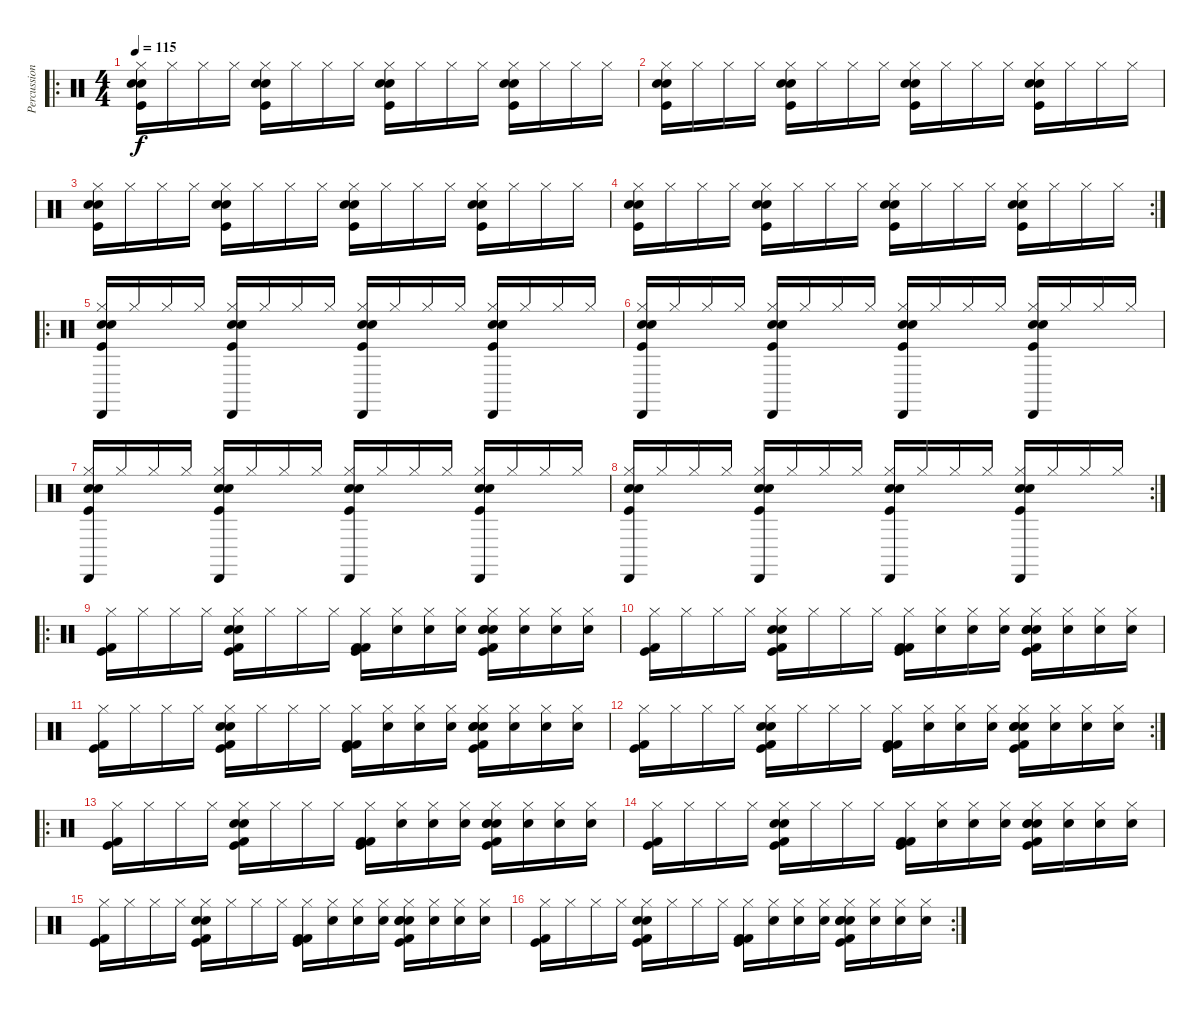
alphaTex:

\track ("Percussion" "Percussion") {instrument percussion}
\staff {score}
\articulation defaults
\ro
\ts (4 4)
\tempo 115
\clef neutral
\ks c
("Hi-Hat (closed)" "Hand Clap (hit)" "Hand Clap (hit)" "Kick (hit)").16{dy f} "Hi-Hat (closed)".16 "Hi-Hat (closed)".16 "Hi-Hat (closed)".16 ("Hi-Hat (closed)" "Hand Clap (hit)" "Hand Clap (hit)" "Kick (hit)").16 "Hi-Hat (closed)".16 "Hi-Hat (closed)".16 "Hi-Hat (closed)".16 ("Hi-Hat (closed)" "Hand Clap (hit)" "Hand Clap (hit)" "Kick (hit)").16 "Hi-Hat (closed)".16 "Hi-Hat (closed)".16 "Hi-Hat (closed)".16 ("Hi-Hat (closed)" "Hand Clap (hit)" "Hand Clap (hit)" "Kick (hit)").16 "Hi-Hat (closed)".16 "Hi-Hat (closed)".16 "Hi-Hat (closed)".16 |
("Hi-Hat (closed)" "Hand Clap (hit)" "Hand Clap (hit)" "Kick (hit)").16 "Hi-Hat (closed)".16 "Hi-Hat (closed)".16 "Hi-Hat (closed)".16 ("Hi-Hat (closed)" "Hand Clap (hit)" "Hand Clap (hit)" "Kick (hit)").16 "Hi-Hat (closed)".16 "Hi-Hat (closed)".16 "Hi-Hat (closed)".16 ("Hi-Hat (closed)" "Hand Clap (hit)" "Hand Clap (hit)" "Kick (hit)").16 "Hi-Hat (closed)".16 "Hi-Hat (closed)".16 "Hi-Hat (closed)".16 ("Hi-Hat (closed)" "Hand Clap (hit)" "Hand Clap (hit)" "Kick (hit)").16 "Hi-Hat (closed)".16 "Hi-Hat (closed)".16 "Hi-Hat (closed)".16 |
("Hi-Hat (closed)" "Hand Clap (hit)" "Hand Clap (hit)" "Kick (hit)").16 "Hi-Hat (closed)".16 "Hi-Hat (closed)".16 "Hi-Hat (closed)".16 ("Hi-Hat (closed)" "Hand Clap (hit)" "Hand Clap (hit)" "Kick (hit)").16 "Hi-Hat (closed)".16 "Hi-Hat (closed)".16 "Hi-Hat (closed)".16 ("Hi-Hat (closed)" "Hand Clap (hit)" "Hand Clap (hit)" "Kick (hit)").16 "Hi-Hat (closed)".16 "Hi-Hat (closed)".16 "Hi-Hat (closed)".16 ("Hi-Hat (closed)" "Hand Clap (hit)" "Hand Clap (hit)" "Kick (hit)").16 "Hi-Hat (closed)".16 "Hi-Hat (closed)".16 "Hi-Hat (closed)".16 |
\rc 2
("Hi-Hat (closed)" "Hand Clap (hit)" "Hand Clap (hit)" "Kick (hit)").16 "Hi-Hat (closed)".16 "Hi-Hat (closed)".16 "Hi-Hat (closed)".16 ("Hi-Hat (closed)" "Hand Clap (hit)" "Hand Clap (hit)" "Kick (hit)").16 "Hi-Hat (closed)".16 "Hi-Hat (closed)".16 "Hi-Hat (closed)".16 ("Hi-Hat (closed)" "Hand Clap (hit)" "Hand Clap (hit)" "Kick (hit)").16 "Hi-Hat (closed)".16 "Hi-Hat (closed)".16 "Hi-Hat (closed)".16 ("Hi-Hat (closed)" "Hand Clap (hit)" "Hand Clap (hit)" "Kick (hit)").16 "Hi-Hat (closed)".16 "Hi-Hat (closed)".16 "Hi-Hat (closed)".16 |
\ro
("Hi-Hat (closed)" "Cabasa (hit)" "Hand Clap (hit)" "Hand Clap (hit)" "Kick (hit)").16 "Hi-Hat (closed)".16 "Hi-Hat (closed)".16 "Hi-Hat (closed)".16 ("Hi-Hat (closed)" "Cabasa (hit)" "Hand Clap (hit)" "Hand Clap (hit)" "Kick (hit)").16 "Hi-Hat (closed)".16 "Hi-Hat (closed)".16 "Hi-Hat (closed)".16 ("Hi-Hat (closed)" "Cabasa (hit)" "Hand Clap (hit)" "Hand Clap (hit)" "Kick (hit)").16 "Hi-Hat (closed)".16 "Hi-Hat (closed)".16 "Hi-Hat (closed)".16 ("Hi-Hat (closed)" "Cabasa (hit)" "Hand Clap (hit)" "Hand Clap (hit)" "Kick (hit)").16 "Hi-Hat (closed)".16 "Hi-Hat (closed)".16 "Hi-Hat (closed)".16 |
("Hi-Hat (closed)" "Cabasa (hit)" "Hand Clap (hit)" "Hand Clap (hit)" "Kick (hit)").16 "Hi-Hat (closed)".16 "Hi-Hat (closed)".16 "Hi-Hat (closed)".16 ("Hi-Hat (closed)" "Cabasa (hit)" "Hand Clap (hit)" "Hand Clap (hit)" "Kick (hit)").16 "Hi-Hat (closed)".16 "Hi-Hat (closed)".16 "Hi-Hat (closed)".16 ("Hi-Hat (closed)" "Cabasa (hit)" "Hand Clap (hit)" "Hand Clap (hit)" "Kick (hit)").16 "Hi-Hat (closed)".16 "Hi-Hat (closed)".16 "Hi-Hat (closed)".16 ("Hi-Hat (closed)" "Cabasa (hit)" "Hand Clap (hit)" "Hand Clap (hit)" "Kick (hit)").16 "Hi-Hat (closed)".16 "Hi-Hat (closed)".16 "Hi-Hat (closed)".16 |
("Hi-Hat (closed)" "Cabasa (hit)" "Hand Clap (hit)" "Hand Clap (hit)" "Kick (hit)").16 "Hi-Hat (closed)".16 "Hi-Hat (closed)".16 "Hi-Hat (closed)".16 ("Hi-Hat (closed)" "Cabasa (hit)" "Hand Clap (hit)" "Hand Clap (hit)" "Kick (hit)").16 "Hi-Hat (closed)".16 "Hi-Hat (closed)".16 "Hi-Hat (closed)".16 ("Hi-Hat (closed)" "Cabasa (hit)" "Hand Clap (hit)" "Hand Clap (hit)" "Kick (hit)").16 "Hi-Hat (closed)".16 "Hi-Hat (closed)".16 "Hi-Hat (closed)".16 ("Hi-Hat (closed)" "Cabasa (hit)" "Hand Clap (hit)" "Hand Clap (hit)" "Kick (hit)").16 "Hi-Hat (closed)".16 "Hi-Hat (closed)".16 "Hi-Hat (closed)".16 |
\rc 2
("Hi-Hat (closed)" "Cabasa (hit)" "Hand Clap (hit)" "Hand Clap (hit)" "Kick (hit)").16 "Hi-Hat (closed)".16 "Hi-Hat (closed)".16 "Hi-Hat (closed)".16 ("Hi-Hat (closed)" "Cabasa (hit)" "Hand Clap (hit)" "Hand Clap (hit)" "Kick (hit)").16 "Hi-Hat (closed)".16 "Hi-Hat (closed)".16 "Hi-Hat (closed)".16 ("Hi-Hat (closed)" "Cabasa (hit)" "Hand Clap (hit)" "Hand Clap (hit)" "Kick (hit)").16 "Hi-Hat (closed)".16 "Hi-Hat (closed)".16 "Hi-Hat (closed)".16 ("Hi-Hat (closed)" "Cabasa (hit)" "Hand Clap (hit)" "Hand Clap (hit)" "Kick (hit)").16 "Hi-Hat (closed)".16 "Hi-Hat (closed)".16 "Hi-Hat (closed)".16 |
\ro
("Hi-Hat (closed)" "Kick (hit) 2" "Kick (hit)").16 "Hi-Hat (closed)".16 "Hi-Hat (closed)".16 "Hi-Hat (closed)".16 ("Hi-Hat (closed)" "Snare (hit) 2" "Electric Snare (hit)" "Kick (hit) 2" "Kick (hit)").16 "Hi-Hat (closed)".16 "Hi-Hat (closed)".16 "Hi-Hat (closed)".16 ("Hi-Hat (closed)" "Kick (hit) 2" "Kick (hit) 2" "Kick (hit)").16 ("Hi-Hat (closed)" "Hand Clap (hit)").16 ("Hi-Hat (closed)" "Hand Clap (hit)").16 ("Hi-Hat (closed)" "Hand Clap (hit)").16 ("Hi-Hat (closed)" "Snare (hit) 2" "Electric Snare (hit)" "Kick (hit) 2" "Hand Clap (hit)" "Kick (hit)").16 ("Hi-Hat (closed)" "Hand Clap (hit)").16 ("Hi-Hat (closed)" "Hand Clap (hit)").16 ("Hi-Hat (closed)" "Hand Clap (hit)").16 |
("Hi-Hat (closed)" "Kick (hit) 2" "Kick (hit)").16 "Hi-Hat (closed)".16 "Hi-Hat (closed)".16 "Hi-Hat (closed)".16 ("Hi-Hat (closed)" "Snare (hit) 2" "Electric Snare (hit)" "Kick (hit) 2" "Kick (hit)").16 "Hi-Hat (closed)".16 "Hi-Hat (closed)".16 "Hi-Hat (closed)".16 ("Hi-Hat (closed)" "Kick (hit) 2" "Kick (hit) 2" "Kick (hit)").16 ("Hi-Hat (closed)" "Hand Clap (hit)").16 ("Hi-Hat (closed)" "Hand Clap (hit)").16 ("Hi-Hat (closed)" "Hand Clap (hit)").16 ("Hi-Hat (closed)" "Snare (hit) 2" "Electric Snare (hit)" "Kick (hit) 2" "Hand Clap (hit)" "Kick (hit)").16 ("Hi-Hat (closed)" "Hand Clap (hit)").16 ("Hi-Hat (closed)" "Hand Clap (hit)").16 ("Hi-Hat (closed)" "Hand Clap (hit)").16 |
("Hi-Hat (closed)" "Kick (hit) 2" "Kick (hit)").16 "Hi-Hat (closed)".16 "Hi-Hat (closed)".16 "Hi-Hat (closed)".16 ("Hi-Hat (closed)" "Snare (hit) 2" "Electric Snare (hit)" "Kick (hit) 2" "Kick (hit)").16 "Hi-Hat (closed)".16 "Hi-Hat (closed)".16 "Hi-Hat (closed)".16 ("Hi-Hat (closed)" "Kick (hit) 2" "Kick (hit) 2" "Kick (hit)").16 ("Hi-Hat (closed)" "Hand Clap (hit)").16 ("Hi-Hat (closed)" "Hand Clap (hit)").16 ("Hi-Hat (closed)" "Hand Clap (hit)").16 ("Hi-Hat (closed)" "Snare (hit) 2" "Electric Snare (hit)" "Kick (hit) 2" "Hand Clap (hit)" "Kick (hit)").16 ("Hi-Hat (closed)" "Hand Clap (hit)").16 ("Hi-Hat (closed)" "Hand Clap (hit)").16 ("Hi-Hat (closed)" "Hand Clap (hit)").16 |
\rc 2
("Hi-Hat (closed)" "Kick (hit) 2" "Kick (hit)").16 "Hi-Hat (closed)".16 "Hi-Hat (closed)".16 "Hi-Hat (closed)".16 ("Hi-Hat (closed)" "Snare (hit) 2" "Electric Snare (hit)" "Kick (hit) 2" "Kick (hit)").16 "Hi-Hat (closed)".16 "Hi-Hat (closed)".16 "Hi-Hat (closed)".16 ("Hi-Hat (closed)" "Kick (hit) 2" "Kick (hit) 2" "Kick (hit)").16 ("Hi-Hat (closed)" "Hand Clap (hit)").16 ("Hi-Hat (closed)" "Hand Clap (hit)").16 ("Hi-Hat (closed)" "Hand Clap (hit)").16 ("Hi-Hat (closed)" "Snare (hit) 2" "Electric Snare (hit)" "Kick (hit) 2" "Hand Clap (hit)" "Kick (hit)").16 ("Hi-Hat (closed)" "Hand Clap (hit)").16 ("Hi-Hat (closed)" "Hand Clap (hit)").16 ("Hi-Hat (closed)" "Hand Clap (hit)").16 |
\ro
("Hi-Hat (closed)" "Kick (hit) 2" "Kick (hit)").16 "Hi-Hat (closed)".16 "Hi-Hat (closed)".16 "Hi-Hat (closed)".16 ("Hi-Hat (closed)" "Snare (hit) 2" "Electric Snare (hit)" "Kick (hit) 2" "Kick (hit)").16 "Hi-Hat (closed)".16 "Hi-Hat (closed)".16 "Hi-Hat (closed)".16 ("Hi-Hat (closed)" "Kick (hit) 2" "Kick (hit) 2" "Kick (hit)").16 ("Hi-Hat (closed)" "Hand Clap (hit)").16 ("Hi-Hat (closed)" "Hand Clap (hit)").16 ("Hi-Hat (closed)" "Hand Clap (hit)").16 ("Hi-Hat (closed)" "Snare (hit) 2" "Electric Snare (hit)" "Kick (hit) 2" "Hand Clap (hit)" "Kick (hit)").16 ("Hi-Hat (closed)" "Hand Clap (hit)").16 ("Hi-Hat (closed)" "Hand Clap (hit)").16 ("Hi-Hat (closed)" "Hand Clap (hit)").16 |
("Hi-Hat (closed)" "Kick (hit) 2" "Kick (hit)").16 "Hi-Hat (closed)".16 "Hi-Hat (closed)".16 "Hi-Hat (closed)".16 ("Hi-Hat (closed)" "Snare (hit) 2" "Electric Snare (hit)" "Kick (hit) 2" "Kick (hit)").16 "Hi-Hat (closed)".16 "Hi-Hat (closed)".16 "Hi-Hat (closed)".16 ("Hi-Hat (closed)" "Kick (hit) 2" "Kick (hit) 2" "Kick (hit)").16 ("Hi-Hat (closed)" "Hand Clap (hit)").16 ("Hi-Hat (closed)" "Hand Clap (hit)").16 ("Hi-Hat (closed)" "Hand Clap (hit)").16 ("Hi-Hat (closed)" "Snare (hit) 2" "Electric Snare (hit)" "Kick (hit) 2" "Hand Clap (hit)" "Kick (hit)").16 ("Hi-Hat (closed)" "Hand Clap (hit)").16 ("Hi-Hat (closed)" "Hand Clap (hit)").16 ("Hi-Hat (closed)" "Hand Clap (hit)").16 |
("Hi-Hat (closed)" "Kick (hit) 2" "Kick (hit)").16 "Hi-Hat (closed)".16 "Hi-Hat (closed)".16 "Hi-Hat (closed)".16 ("Hi-Hat (closed)" "Snare (hit) 2" "Electric Snare (hit)" "Kick (hit) 2" "Kick (hit)").16 "Hi-Hat (closed)".16 "Hi-Hat (closed)".16 "Hi-Hat (closed)".16 ("Hi-Hat (closed)" "Kick (hit) 2" "Kick (hit) 2" "Kick (hit)").16 ("Hi-Hat (closed)" "Hand Clap (hit)").16 ("Hi-Hat (closed)" "Hand Clap (hit)").16 ("Hi-Hat (closed)" "Hand Clap (hit)").16 ("Hi-Hat (closed)" "Snare (hit) 2" "Electric Snare (hit)" "Kick (hit) 2" "Hand Clap (hit)" "Kick (hit)").16 ("Hi-Hat (closed)" "Hand Clap (hit)").16 ("Hi-Hat (closed)" "Hand Clap (hit)").16 ("Hi-Hat (closed)" "Hand Clap (hit)").16 |
\rc 2
("Hi-Hat (closed)" "Kick (hit) 2" "Kick (hit)").16 "Hi-Hat (closed)".16 "Hi-Hat (closed)".16 "Hi-Hat (closed)".16 ("Hi-Hat (closed)" "Snare (hit) 2" "Electric Snare (hit)" "Kick (hit) 2" "Kick (hit)").16 "Hi-Hat (closed)".16 "Hi-Hat (closed)".16 "Hi-Hat (closed)".16 ("Hi-Hat (closed)" "Kick (hit) 2" "Kick (hit) 2" "Kick (hit)").16 ("Hi-Hat (closed)" "Hand Clap (hit)").16 ("Hi-Hat (closed)" "Hand Clap (hit)").16 ("Hi-Hat (closed)" "Hand Clap (hit)").16 ("Hi-Hat (closed)" "Snare (hit) 2" "Electric Snare (hit)" "Kick (hit) 2" "Hand Clap (hit)" "Kick (hit)").16 ("Hi-Hat (closed)" "Hand Clap (hit)").16 ("Hi-Hat (closed)" "Hand Clap (hit)").16 ("Hi-Hat (closed)" "Hand Clap (hit)").16
